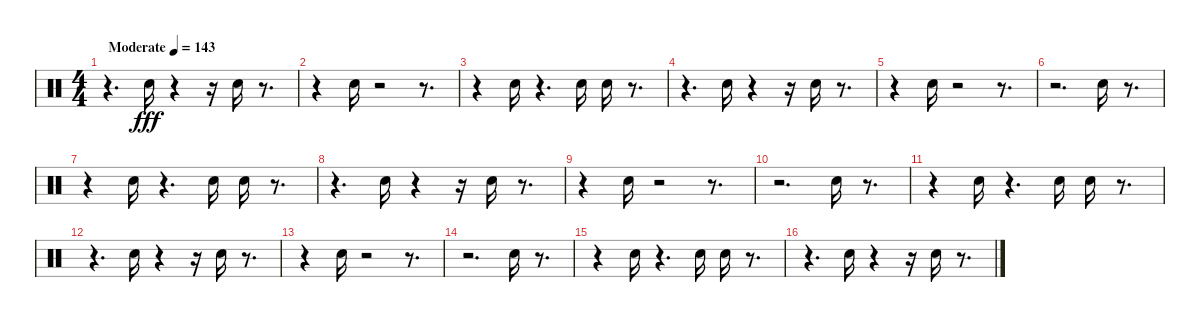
\track "" {instrument percussion}
\staff {score}
\articulation defaults
\ts (4 4)
\tempo (143 "Moderate")
\clef neutral
\ks c
r.4{d dy fff} "Snare (hit) 2".16 r.4 r.16 "Snare (hit) 2".16 r.8{d} |
r.4 "Snare (hit) 2".16 r.2 r.8{d} |
r.4 "Snare (hit) 2".16 r.4{d} "Snare (hit) 2".16 "Snare (hit) 2".16 r.8{d} |
r.4{d} "Snare (hit) 2".16 r.4 r.16 "Snare (hit) 2".16 r.8{d} |
r.4 "Snare (hit) 2".16 r.2 r.8{d} |
r.2{d} "Snare (hit) 2".16 r.8{d} |
r.4 "Snare (hit) 2".16 r.4{d} "Snare (hit) 2".16 "Snare (hit) 2".16 r.8{d} |
r.4{d} "Snare (hit) 2".16 r.4 r.16 "Snare (hit) 2".16 r.8{d} |
r.4 "Snare (hit) 2".16 r.2 r.8{d} |
r.2{d} "Snare (hit) 2".16 r.8{d} |
r.4 "Snare (hit) 2".16 r.4{d} "Snare (hit) 2".16 "Snare (hit) 2".16 r.8{d} |
r.4{d} "Snare (hit) 2".16 r.4 r.16 "Snare (hit) 2".16 r.8{d} |
r.4 "Snare (hit) 2".16 r.2 r.8{d} |
r.2{d} "Snare (hit) 2".16 r.8{d} |
r.4 "Snare (hit) 2".16 r.4{d} "Snare (hit) 2".16 "Snare (hit) 2".16 r.8{d} |
r.4{d} "Snare (hit) 2".16 r.4 r.16 "Snare (hit) 2".16 r.8{d}
